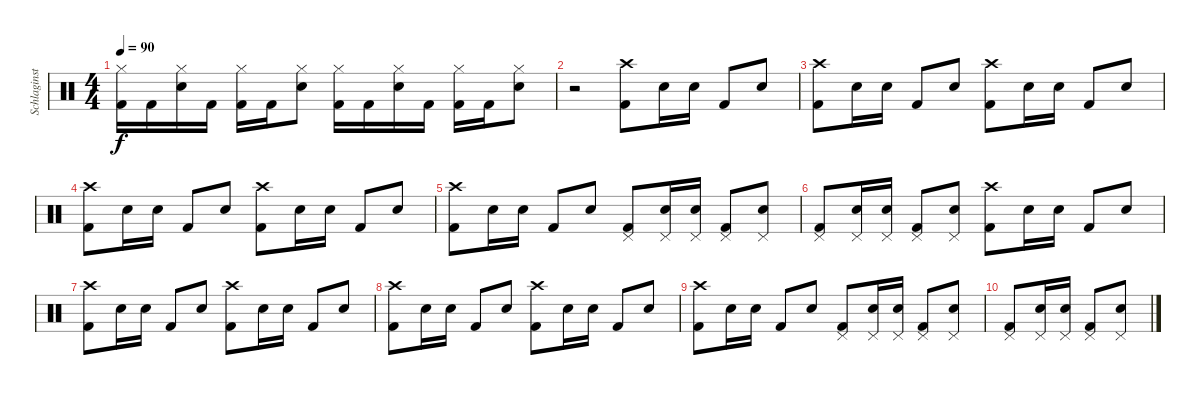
\track ("Schlaginstrumente - Auswahl" "Schlaginst") {instrument percussion}
\staff {score}
\articulation defaults
\ts (4 4)
\tempo 90
\clef neutral
\ks c
("Kick (hit) 2" "Hi-Hat (closed)").16{dy f} "Kick (hit) 2".16 ("Snare (hit) 2" "Hi-Hat (closed)").16 "Kick (hit) 2".16 ("Kick (hit) 2" "Hi-Hat (closed)").16 "Kick (hit) 2".16 ("Snare (hit) 2" "Hi-Hat (closed)").8 ("Kick (hit) 2" "Hi-Hat (closed)").16 "Kick (hit) 2".16 ("Snare (hit) 2" "Hi-Hat (closed)").16 "Kick (hit) 2".16 ("Kick (hit) 2" "Hi-Hat (closed)").16 "Kick (hit) 2".16 ("Snare (hit) 2" "Hi-Hat (closed)").8 |
r.2 ("Kick (hit) 2" "Crash high (hit)").8 "Snare (hit) 2".16 "Snare (hit) 2".16 "Kick (hit) 2".8 "Snare (hit) 2".8 |
("Kick (hit) 2" "Crash high (hit)").8 "Snare (hit) 2".16 "Snare (hit) 2".16 "Kick (hit) 2".8 "Snare (hit) 2".8 ("Kick (hit) 2" "Crash high (hit)").8 "Snare (hit) 2".16 "Snare (hit) 2".16 "Kick (hit) 2".8 "Snare (hit) 2".8 |
("Kick (hit) 2" "Crash high (hit)").8 "Snare (hit) 2".16 "Snare (hit) 2".16 "Kick (hit) 2".8 "Snare (hit) 2".8 ("Kick (hit) 2" "Crash high (hit)").8 "Snare (hit) 2".16 "Snare (hit) 2".16 "Kick (hit) 2".8 "Snare (hit) 2".8 |
("Kick (hit) 2" "Crash high (hit)").8 "Snare (hit) 2".16 "Snare (hit) 2".16 "Kick (hit) 2".8 "Snare (hit) 2".8 ("Kick (hit) 2" "Pedal Hi-Hat (hit)").8 ("Snare (hit) 2" "Pedal Hi-Hat (hit)").16 ("Snare (hit) 2" "Pedal Hi-Hat (hit)").16 ("Kick (hit) 2" "Pedal Hi-Hat (hit)").8 ("Snare (hit) 2" "Pedal Hi-Hat (hit)").8 |
("Kick (hit) 2" "Pedal Hi-Hat (hit)").8 ("Snare (hit) 2" "Pedal Hi-Hat (hit)").16 ("Snare (hit) 2" "Pedal Hi-Hat (hit)").16 ("Kick (hit) 2" "Pedal Hi-Hat (hit)").8 ("Snare (hit) 2" "Pedal Hi-Hat (hit)").8 ("Kick (hit) 2" "Crash high (hit)").8 "Snare (hit) 2".16 "Snare (hit) 2".16 "Kick (hit) 2".8 "Snare (hit) 2".8 |
("Kick (hit) 2" "Crash high (hit)").8 "Snare (hit) 2".16 "Snare (hit) 2".16 "Kick (hit) 2".8 "Snare (hit) 2".8 ("Kick (hit) 2" "Crash high (hit)").8 "Snare (hit) 2".16 "Snare (hit) 2".16 "Kick (hit) 2".8 "Snare (hit) 2".8 |
("Kick (hit) 2" "Crash high (hit)").8 "Snare (hit) 2".16 "Snare (hit) 2".16 "Kick (hit) 2".8 "Snare (hit) 2".8 ("Kick (hit) 2" "Crash high (hit)").8 "Snare (hit) 2".16 "Snare (hit) 2".16 "Kick (hit) 2".8 "Snare (hit) 2".8 |
("Kick (hit) 2" "Crash high (hit)").8 "Snare (hit) 2".16 "Snare (hit) 2".16 "Kick (hit) 2".8 "Snare (hit) 2".8 ("Kick (hit) 2" "Pedal Hi-Hat (hit)").8 ("Snare (hit) 2" "Pedal Hi-Hat (hit)").16 ("Snare (hit) 2" "Pedal Hi-Hat (hit)").16 ("Kick (hit) 2" "Pedal Hi-Hat (hit)").8 ("Snare (hit) 2" "Pedal Hi-Hat (hit)").8 |
("Kick (hit) 2" "Pedal Hi-Hat (hit)").8 ("Snare (hit) 2" "Pedal Hi-Hat (hit)").16 ("Snare (hit) 2" "Pedal Hi-Hat (hit)").16 ("Kick (hit) 2" "Pedal Hi-Hat (hit)").8 ("Snare (hit) 2" "Pedal Hi-Hat (hit)").8
